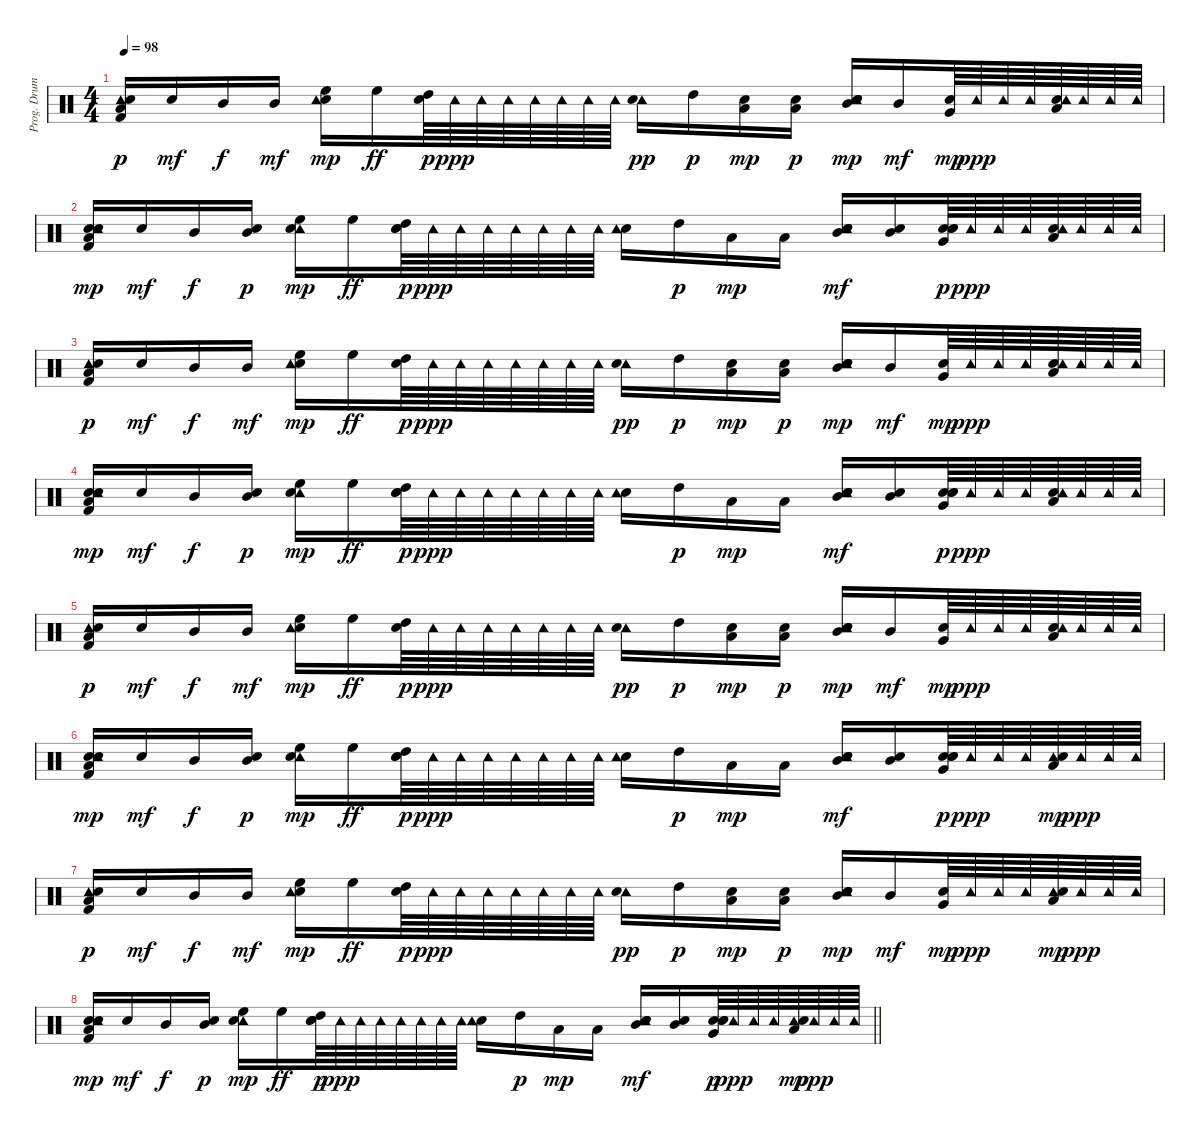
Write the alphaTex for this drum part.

\track ("Prog. Drums" "Prog. Drum") {instrument percussion}
\staff {score}
\articulation defaults
\ts (4 4)
\tempo 98
\clef neutral
\ks c
("Tambourine (hit)" "Snare (hit)" "Low Floor Tom (hit)" "Kick (hit) 2").16{dy p} "Snare (hit)".16{dy mf} "Mid Tom (hit)".16{dy f} "Mid Tom (hit)".16{dy mf} ("Snare (hit) 2" "High Floor Tom (hit)" "Tambourine (hit)").16{dy mp} "High Floor Tom (hit)".16{dy ff} ("High Tom (hit)" "Snare (hit)").64{dy p} "Tambourine (hit)".64{dy ppp} "Tambourine (hit)".64 "Tambourine (hit)".64 "Tambourine (hit)".64 "Tambourine (hit)".64 "Tambourine (hit)".64 "Tambourine (hit)".64 ("Tambourine (hit)" "Snare (hit) 2").16{dy pp} "High Tom (hit)".16{dy p} ("Snare (hit)" "Low Tom (hit)").16{dy mp} ("Low Tom (hit)" "Snare (hit)").16{dy p} ("Snare (hit) 2" "Mid Tom (hit)" "Snare (hit)" "Tambourine (hit)").16{dy mp} "Mid Tom (hit)".16{dy mf} ("Snare (hit)" "Very Low Tom (hit)").64{dy mp} "Tambourine (hit)".64{dy ppp} "Tambourine (hit)".64 "Tambourine (hit)".64 ("Snare (hit) 2" "Low Tom (hit)" "Tambourine (hit)").64 "Tambourine (hit)".64 "Tambourine (hit)".64 "Tambourine (hit)".64 |
("Snare (hit)" "Snare (hit)" "Tambourine (hit)" "Kick (hit) 2" "Low Floor Tom (hit)").16{dy mp} "Snare (hit)".16{dy mf} "Mid Tom (hit)".16{dy f} ("Mid Tom (hit)" "Snare (hit)").16{dy p} ("Tambourine (hit)" "High Floor Tom (hit)" "Snare (hit) 2").16{dy mp} "High Floor Tom (hit)".16{dy ff} ("High Tom (hit)" "Snare (hit)" "Snare (hit)").64{dy p} "Tambourine (hit)".64{dy ppp} "Tambourine (hit)".64 "Tambourine (hit)".64 "Tambourine (hit)".64 "Tambourine (hit)".64 "Tambourine (hit)".64 "Tambourine (hit)".64 ("Snare (hit) 2" "Tambourine (hit)").16 "High Tom (hit)".16{dy p} "Low Tom (hit)".16{dy mp} "Low Tom (hit)".16 ("Tambourine (hit)" "Snare (hit)" "Snare (hit) 2" "Mid Tom (hit)").16{dy mf} ("Snare (hit) 2" "Mid Tom (hit)").16 ("Snare (hit) 2" "Very Low Tom (hit)" "Snare (hit)" "Snare (hit)").64{dy p} "Tambourine (hit)".64{dy ppp} "Tambourine (hit)".64 "Tambourine (hit)".64 ("Snare (hit) 2" "Low Tom (hit)" "Tambourine (hit)").64 "Tambourine (hit)".64 "Tambourine (hit)".64 "Tambourine (hit)".64 |
("Tambourine (hit)" "Snare (hit)" "Low Floor Tom (hit)" "Kick (hit) 2").16{dy p} "Snare (hit)".16{dy mf} "Mid Tom (hit)".16{dy f} "Mid Tom (hit)".16{dy mf} ("Snare (hit) 2" "High Floor Tom (hit)" "Tambourine (hit)").16{dy mp} "High Floor Tom (hit)".16{dy ff} ("High Tom (hit)" "Snare (hit)").64{dy p} "Tambourine (hit)".64{dy ppp} "Tambourine (hit)".64 "Tambourine (hit)".64 "Tambourine (hit)".64 "Tambourine (hit)".64 "Tambourine (hit)".64 "Tambourine (hit)".64 ("Tambourine (hit)" "Snare (hit) 2").16{dy pp} "High Tom (hit)".16{dy p} ("Snare (hit)" "Low Tom (hit)").16{dy mp} ("Low Tom (hit)" "Snare (hit)").16{dy p} ("Snare (hit) 2" "Mid Tom (hit)" "Snare (hit)" "Tambourine (hit)").16{dy mp} "Mid Tom (hit)".16{dy mf} ("Snare (hit)" "Very Low Tom (hit)").64{dy mp} "Tambourine (hit)".64{dy ppp} "Tambourine (hit)".64 "Tambourine (hit)".64 ("Snare (hit) 2" "Low Tom (hit)" "Tambourine (hit)").64 "Tambourine (hit)".64 "Tambourine (hit)".64 "Tambourine (hit)".64 |
("Snare (hit)" "Snare (hit)" "Tambourine (hit)" "Kick (hit) 2" "Low Floor Tom (hit)").16{dy mp} "Snare (hit)".16{dy mf} "Mid Tom (hit)".16{dy f} ("Mid Tom (hit)" "Snare (hit)").16{dy p} ("Tambourine (hit)" "High Floor Tom (hit)" "Snare (hit) 2").16{dy mp} "High Floor Tom (hit)".16{dy ff} ("High Tom (hit)" "Snare (hit)" "Snare (hit)").64{dy p} "Tambourine (hit)".64{dy ppp} "Tambourine (hit)".64 "Tambourine (hit)".64 "Tambourine (hit)".64 "Tambourine (hit)".64 "Tambourine (hit)".64 "Tambourine (hit)".64 ("Snare (hit) 2" "Tambourine (hit)").16 "High Tom (hit)".16{dy p} "Low Tom (hit)".16{dy mp} "Low Tom (hit)".16 ("Tambourine (hit)" "Snare (hit)" "Snare (hit) 2" "Mid Tom (hit)").16{dy mf} ("Snare (hit) 2" "Mid Tom (hit)").16 ("Snare (hit) 2" "Very Low Tom (hit)" "Snare (hit)" "Snare (hit)").64{dy p} "Tambourine (hit)".64{dy ppp} "Tambourine (hit)".64 "Tambourine (hit)".64 ("Snare (hit) 2" "Low Tom (hit)" "Tambourine (hit)").64 "Tambourine (hit)".64 "Tambourine (hit)".64 "Tambourine (hit)".64 |
("Tambourine (hit)" "Snare (hit)" "Low Floor Tom (hit)" "Kick (hit) 2").16{dy p} "Snare (hit)".16{dy mf} "Mid Tom (hit)".16{dy f} "Mid Tom (hit)".16{dy mf} ("Snare (hit) 2" "High Floor Tom (hit)" "Tambourine (hit)").16{dy mp} "High Floor Tom (hit)".16{dy ff} ("High Tom (hit)" "Snare (hit)").64{dy p} "Tambourine (hit)".64{dy ppp} "Tambourine (hit)".64 "Tambourine (hit)".64 "Tambourine (hit)".64 "Tambourine (hit)".64 "Tambourine (hit)".64 "Tambourine (hit)".64 ("Tambourine (hit)" "Snare (hit) 2").16{dy pp} "High Tom (hit)".16{dy p} ("Snare (hit)" "Low Tom (hit)").16{dy mp} ("Low Tom (hit)" "Snare (hit)").16{dy p} ("Snare (hit) 2" "Mid Tom (hit)" "Snare (hit)" "Tambourine (hit)").16{dy mp} "Mid Tom (hit)".16{dy mf} ("Snare (hit)" "Very Low Tom (hit)").64{dy mp} "Tambourine (hit)".64{dy ppp} "Tambourine (hit)".64 "Tambourine (hit)".64 ("Snare (hit) 2" "Low Tom (hit)" "Tambourine (hit)").64 "Tambourine (hit)".64 "Tambourine (hit)".64 "Tambourine (hit)".64 |
("Snare (hit)" "Snare (hit)" "Tambourine (hit)" "Kick (hit) 2" "Low Floor Tom (hit)").16{dy mp} "Snare (hit)".16{dy mf} "Mid Tom (hit)".16{dy f} ("Mid Tom (hit)" "Snare (hit)").16{dy p} ("Tambourine (hit)" "High Floor Tom (hit)" "Snare (hit) 2").16{dy mp} "High Floor Tom (hit)".16{dy ff} ("High Tom (hit)" "Snare (hit)" "Snare (hit)").64{dy p} "Tambourine (hit)".64{dy ppp} "Tambourine (hit)".64 "Tambourine (hit)".64 "Tambourine (hit)".64 "Tambourine (hit)".64 "Tambourine (hit)".64 "Tambourine (hit)".64 ("Snare (hit) 2" "Tambourine (hit)").16 "High Tom (hit)".16{dy p} "Low Tom (hit)".16{dy mp} "Low Tom (hit)".16 ("Tambourine (hit)" "Snare (hit)" "Snare (hit) 2" "Mid Tom (hit)").16{dy mf} ("Snare (hit) 2" "Mid Tom (hit)").16 ("Snare (hit) 2" "Very Low Tom (hit)" "Snare (hit)" "Snare (hit)").64{dy p} "Tambourine (hit)".64{dy ppp} "Tambourine (hit)".64 "Tambourine (hit)".64 ("Tambourine (hit)" "Snare (hit) 2" "Low Tom (hit)").64{dy mp} "Tambourine (hit)".64{dy ppp} "Tambourine (hit)".64 "Tambourine (hit)".64 |
("Tambourine (hit)" "Snare (hit)" "Low Floor Tom (hit)" "Kick (hit) 2").16{dy p} "Snare (hit)".16{dy mf} "Mid Tom (hit)".16{dy f} "Mid Tom (hit)".16{dy mf} ("Snare (hit) 2" "High Floor Tom (hit)" "Tambourine (hit)").16{dy mp} "High Floor Tom (hit)".16{dy ff} ("High Tom (hit)" "Snare (hit)").64{dy p} "Tambourine (hit)".64{dy ppp} "Tambourine (hit)".64 "Tambourine (hit)".64 "Tambourine (hit)".64 "Tambourine (hit)".64 "Tambourine (hit)".64 "Tambourine (hit)".64 ("Tambourine (hit)" "Snare (hit) 2").16{dy pp} "High Tom (hit)".16{dy p} ("Snare (hit)" "Low Tom (hit)").16{dy mp} ("Low Tom (hit)" "Snare (hit)").16{dy p} ("Snare (hit) 2" "Mid Tom (hit)" "Snare (hit)" "Tambourine (hit)").16{dy mp} "Mid Tom (hit)".16{dy mf} ("Snare (hit)" "Very Low Tom (hit)").64{dy mp} "Tambourine (hit)".64{dy ppp} "Tambourine (hit)".64 "Tambourine (hit)".64 ("Tambourine (hit)" "Snare (hit) 2" "Low Tom (hit)").64{dy mp} "Tambourine (hit)".64{dy ppp} "Tambourine (hit)".64 "Tambourine (hit)".64 |
\barLineRight lightlight
("Snare (hit)" "Snare (hit)" "Tambourine (hit)" "Kick (hit) 2" "Low Floor Tom (hit)").16{dy mp} "Snare (hit)".16{dy mf} "Mid Tom (hit)".16{dy f} ("Mid Tom (hit)" "Snare (hit)").16{dy p} ("Tambourine (hit)" "High Floor Tom (hit)" "Snare (hit) 2").16{dy mp} "High Floor Tom (hit)".16{dy ff} ("High Tom (hit)" "Snare (hit)" "Snare (hit)").64{dy p} "Tambourine (hit)".64{dy ppp} "Tambourine (hit)".64 "Tambourine (hit)".64 "Tambourine (hit)".64 "Tambourine (hit)".64 "Tambourine (hit)".64 "Tambourine (hit)".64 ("Snare (hit) 2" "Tambourine (hit)").16 "High Tom (hit)".16{dy p} "Low Tom (hit)".16{dy mp} "Low Tom (hit)".16 ("Tambourine (hit)" "Snare (hit)" "Snare (hit) 2" "Mid Tom (hit)").16{dy mf} ("Snare (hit) 2" "Mid Tom (hit)").16 ("Snare (hit) 2" "Very Low Tom (hit)" "Snare (hit)" "Snare (hit)").64{dy p} "Tambourine (hit)".64{dy ppp} "Tambourine (hit)".64 "Tambourine (hit)".64 ("Tambourine (hit)" "Snare (hit) 2" "Low Tom (hit)").64{dy mp} "Tambourine (hit)".64{dy ppp} "Tambourine (hit)".64 "Tambourine (hit)".64
